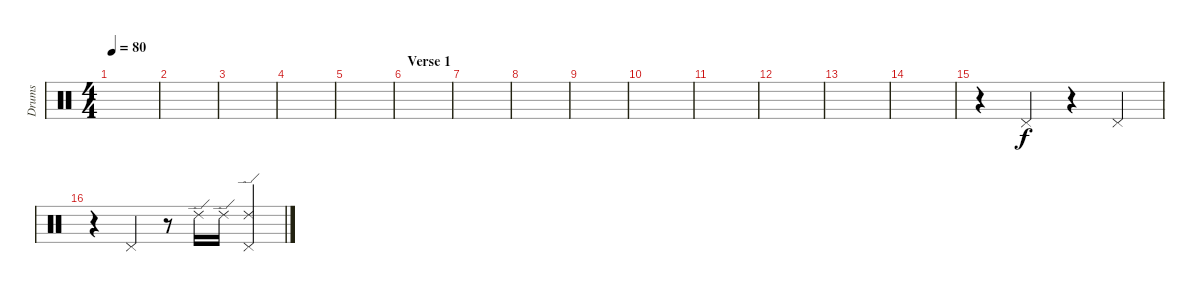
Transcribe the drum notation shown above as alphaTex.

\track ("Drums" "Drums") {instrument percussion}
\staff {score}
\articulation defaults
\ts (4 4)
\tempo 80
\clef neutral
\ks c
|
|
|
|
|
\section ("" "Verse 1")
|
|
|
|
|
|
|
|
|
r.4 "Pedal Hi-Hat (hit)".4 r.4 "Pedal Hi-Hat (hit)".4 |
r.4 "Pedal Hi-Hat (hit)".4 r.8 "Ride (edge) 2".16 "Ride (edge) 2".16 ("Pedal Hi-Hat (hit)" "Ride (edge) 2").4
